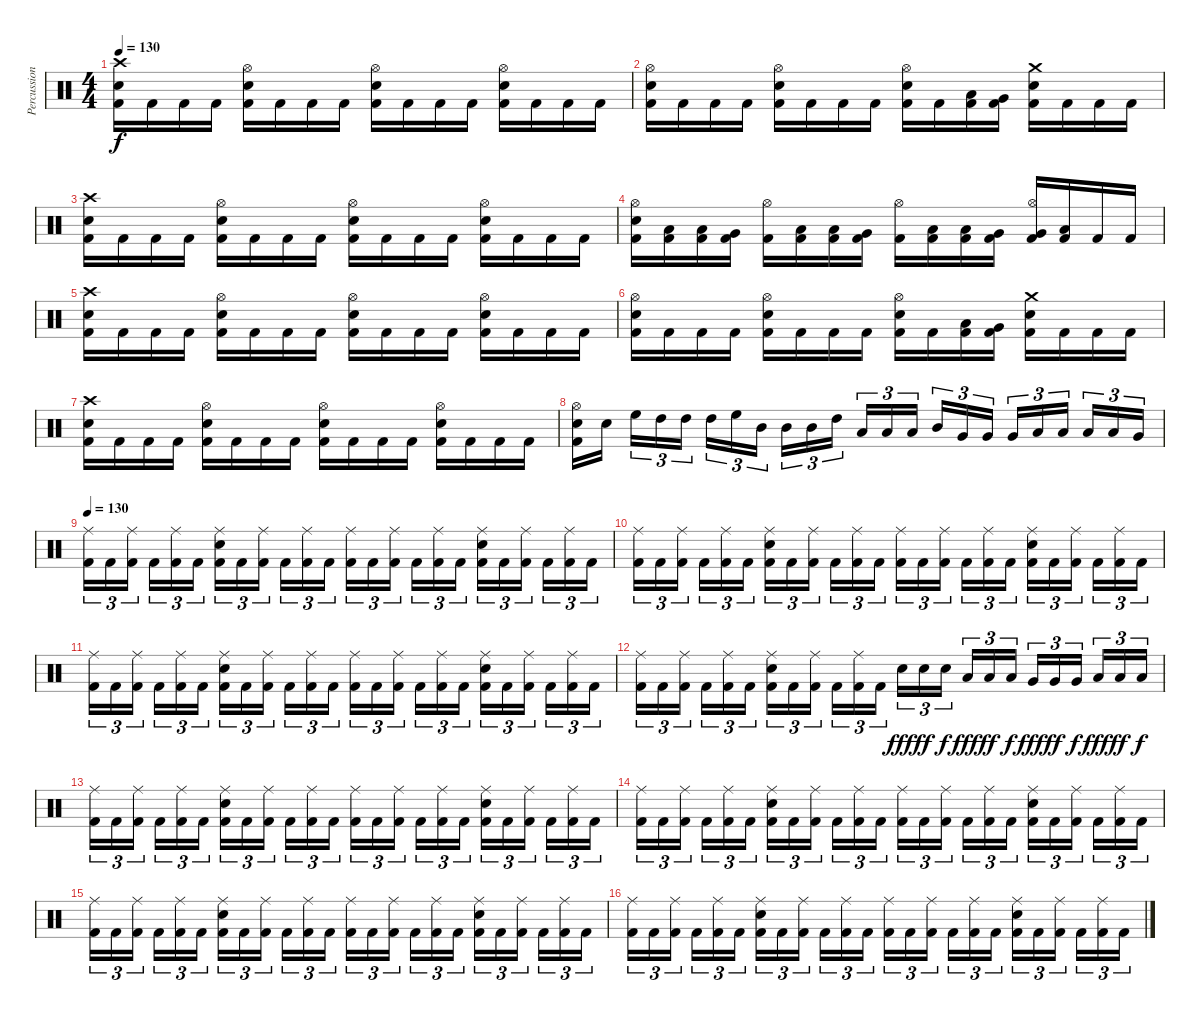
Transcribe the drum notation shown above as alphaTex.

\track ("Percussion" "Percussion") {instrument percussion}
\staff {score}
\articulation defaults
\ts (4 4)
\tempo 130
\clef neutral
\ks c
("Crash high (hit)" "Electric Snare (hit)" "Kick (hit) 2").16{dy f} "Kick (hit) 2".16 "Kick (hit) 2".16 "Kick (hit) 2".16 ("Hi-Hat (open)" "Electric Snare (hit)" "Kick (hit) 2").16 "Kick (hit) 2".16 "Kick (hit) 2".16 "Kick (hit) 2".16 ("Hi-Hat (open)" "Electric Snare (hit)" "Kick (hit) 2").16 "Kick (hit) 2".16 "Kick (hit) 2".16 "Kick (hit) 2".16 ("Hi-Hat (open)" "Electric Snare (hit)" "Kick (hit) 2").16 "Kick (hit) 2".16 "Kick (hit) 2".16 "Kick (hit) 2".16 |
("Hi-Hat (open)" "Electric Snare (hit)" "Kick (hit) 2").16 "Kick (hit) 2".16 "Kick (hit) 2".16 "Kick (hit) 2".16 ("Hi-Hat (open)" "Electric Snare (hit)" "Kick (hit) 2").16 "Kick (hit) 2".16 "Kick (hit) 2".16 "Kick (hit) 2".16 ("Hi-Hat (open)" "Electric Snare (hit)" "Kick (hit) 2").16 "Kick (hit) 2".16 ("Low Tom (hit)" "Kick (hit) 2").16 ("Very Low Tom (hit)" "Kick (hit) 2").16 ("Crash medium (hit)" "Electric Snare (hit)" "Kick (hit) 2").16 "Kick (hit) 2".16 "Kick (hit) 2".16 "Kick (hit) 2".16 |
("Crash high (hit)" "Electric Snare (hit)" "Kick (hit) 2").16 "Kick (hit) 2".16 "Kick (hit) 2".16 "Kick (hit) 2".16 ("Hi-Hat (open)" "Electric Snare (hit)" "Kick (hit) 2").16 "Kick (hit) 2".16 "Kick (hit) 2".16 "Kick (hit) 2".16 ("Hi-Hat (open)" "Electric Snare (hit)" "Kick (hit) 2").16 "Kick (hit) 2".16 "Kick (hit) 2".16 "Kick (hit) 2".16 ("Hi-Hat (open)" "Electric Snare (hit)" "Kick (hit) 2").16 "Kick (hit) 2".16 "Kick (hit) 2".16 "Kick (hit) 2".16 |
("Hi-Hat (open)" "Electric Snare (hit)" "Kick (hit) 2").16 ("Low Tom (hit)" "Kick (hit) 2").16 ("Low Tom (hit)" "Kick (hit) 2").16 ("Very Low Tom (hit)" "Kick (hit) 2").16 ("Hi-Hat (open)" "Kick (hit) 2").16 ("Low Tom (hit)" "Kick (hit) 2").16 ("Low Tom (hit)" "Kick (hit) 2").16 ("Very Low Tom (hit)" "Kick (hit) 2").16 ("Hi-Hat (open)" "Kick (hit) 2").16 ("Low Tom (hit)" "Kick (hit) 2").16 ("Low Tom (hit)" "Kick (hit) 2").16 ("Very Low Tom (hit)" "Kick (hit) 2").16 ("Hi-Hat (open)" "Very Low Tom (hit)" "Kick (hit) 2").16 ("Low Floor Tom (hit)" "Kick (hit) 2").16 "Kick (hit) 2".16 "Kick (hit) 2".16 |
("Crash high (hit)" "Electric Snare (hit)" "Kick (hit) 2").16 "Kick (hit) 2".16 "Kick (hit) 2".16 "Kick (hit) 2".16 ("Hi-Hat (open)" "Electric Snare (hit)" "Kick (hit) 2").16 "Kick (hit) 2".16 "Kick (hit) 2".16 "Kick (hit) 2".16 ("Hi-Hat (open)" "Electric Snare (hit)" "Kick (hit) 2").16 "Kick (hit) 2".16 "Kick (hit) 2".16 "Kick (hit) 2".16 ("Hi-Hat (open)" "Electric Snare (hit)" "Kick (hit) 2").16 "Kick (hit) 2".16 "Kick (hit) 2".16 "Kick (hit) 2".16 |
("Hi-Hat (open)" "Electric Snare (hit)" "Kick (hit) 2").16 "Kick (hit) 2".16 "Kick (hit) 2".16 "Kick (hit) 2".16 ("Hi-Hat (open)" "Electric Snare (hit)" "Kick (hit) 2").16 "Kick (hit) 2".16 "Kick (hit) 2".16 "Kick (hit) 2".16 ("Hi-Hat (open)" "Electric Snare (hit)" "Kick (hit) 2").16 "Kick (hit) 2".16 ("Low Tom (hit)" "Kick (hit) 2").16 ("Very Low Tom (hit)" "Kick (hit) 2").16 ("Crash medium (hit)" "Electric Snare (hit)" "Kick (hit) 2").16 "Kick (hit) 2".16 "Kick (hit) 2".16 "Kick (hit) 2".16 |
("Crash high (hit)" "Electric Snare (hit)" "Kick (hit) 2").16 "Kick (hit) 2".16 "Kick (hit) 2".16 "Kick (hit) 2".16 ("Hi-Hat (open)" "Electric Snare (hit)" "Kick (hit) 2").16 "Kick (hit) 2".16 "Kick (hit) 2".16 "Kick (hit) 2".16 ("Hi-Hat (open)" "Electric Snare (hit)" "Kick (hit) 2").16 "Kick (hit) 2".16 "Kick (hit) 2".16 "Kick (hit) 2".16 ("Hi-Hat (open)" "Electric Snare (hit)" "Kick (hit) 2").16 "Kick (hit) 2".16 "Kick (hit) 2".16 "Kick (hit) 2".16 |
("Hi-Hat (open)" "Electric Snare (hit)" "Kick (hit) 2").16 "Electric Snare (hit)".16{beam splitsecondary} "High Floor Tom (hit)".16{tu (3 2)} "High Tom (hit)".16{tu (3 2)} "High Tom (hit)".16{tu (3 2)} "High Tom (hit)".16{tu (3 2)} "High Floor Tom (hit)".16{tu (3 2)} "Mid Tom (hit)".16{tu (3 2) beam splitsecondary} "Mid Tom (hit)".16{tu (3 2)} "Mid Tom (hit)".16{tu (3 2)} "High Tom (hit)".16{tu (3 2)} "Low Tom (hit)".16{tu (3 2)} "Low Tom (hit)".16{tu (3 2)} "Low Tom (hit)".16{tu (3 2) beam splitsecondary} "Mid Tom (hit)".16{tu (3 2)} "Very Low Tom (hit)".16{tu (3 2)} "Very Low Tom (hit)".16{tu (3 2)} "Very Low Tom (hit)".16{tu (3 2)} "Low Tom (hit)".16{tu (3 2)} "Low Floor Tom (hit)".16{tu (3 2) beam splitsecondary} "Low Floor Tom (hit)".16{tu (3 2)} "Low Floor Tom (hit)".16{tu (3 2)} "Very Low Tom (hit)".16{tu (3 2)} |
\tempo 130
("Ride (middle)" "Kick (hit) 2").16{tu (3 2)} "Kick (hit) 2".16{tu (3 2)} ("Ride (middle)" "Kick (hit) 2").16{tu (3 2) beam splitsecondary} "Kick (hit) 2".16{tu (3 2)} ("Ride (middle)" "Kick (hit) 2").16{tu (3 2)} "Kick (hit) 2".16{tu (3 2)} ("Ride (middle)" "Electric Snare (hit)" "Kick (hit) 2").16{tu (3 2)} "Kick (hit) 2".16{tu (3 2)} ("Ride (middle)" "Kick (hit) 2").16{tu (3 2) beam splitsecondary} "Kick (hit) 2".16{tu (3 2)} ("Ride (middle)" "Kick (hit) 2").16{tu (3 2)} "Kick (hit) 2".16{tu (3 2)} ("Ride (middle)" "Kick (hit) 2").16{tu (3 2)} "Kick (hit) 2".16{tu (3 2)} ("Ride (middle)" "Kick (hit) 2").16{tu (3 2) beam splitsecondary} "Kick (hit) 2".16{tu (3 2)} ("Ride (middle)" "Kick (hit) 2").16{tu (3 2)} "Kick (hit) 2".16{tu (3 2)} ("Ride (middle)" "Electric Snare (hit)" "Kick (hit) 2").16{tu (3 2)} "Kick (hit) 2".16{tu (3 2)} ("Ride (middle)" "Kick (hit) 2").16{tu (3 2) beam splitsecondary} "Kick (hit) 2".16{tu (3 2)} ("Ride (middle)" "Kick (hit) 2").16{tu (3 2)} "Kick (hit) 2".16{tu (3 2)} |
("Ride (middle)" "Kick (hit) 2").16{tu (3 2)} "Kick (hit) 2".16{tu (3 2)} ("Ride (middle)" "Kick (hit) 2").16{tu (3 2) beam splitsecondary} "Kick (hit) 2".16{tu (3 2)} ("Ride (middle)" "Kick (hit) 2").16{tu (3 2)} "Kick (hit) 2".16{tu (3 2)} ("Ride (middle)" "Electric Snare (hit)" "Kick (hit) 2").16{tu (3 2)} "Kick (hit) 2".16{tu (3 2)} ("Ride (middle)" "Kick (hit) 2").16{tu (3 2) beam splitsecondary} "Kick (hit) 2".16{tu (3 2)} ("Ride (middle)" "Kick (hit) 2").16{tu (3 2)} "Kick (hit) 2".16{tu (3 2)} ("Ride (middle)" "Kick (hit) 2").16{tu (3 2)} "Kick (hit) 2".16{tu (3 2)} ("Ride (middle)" "Kick (hit) 2").16{tu (3 2) beam splitsecondary} "Kick (hit) 2".16{tu (3 2)} ("Ride (middle)" "Kick (hit) 2").16{tu (3 2)} "Kick (hit) 2".16{tu (3 2)} ("Ride (middle)" "Electric Snare (hit)" "Kick (hit) 2").16{tu (3 2)} "Kick (hit) 2".16{tu (3 2)} ("Ride (middle)" "Kick (hit) 2").16{tu (3 2) beam splitsecondary} "Kick (hit) 2".16{tu (3 2)} ("Ride (middle)" "Kick (hit) 2").16{tu (3 2)} "Kick (hit) 2".16{tu (3 2)} |
("Ride (middle)" "Kick (hit) 2").16{tu (3 2)} "Kick (hit) 2".16{tu (3 2)} ("Ride (middle)" "Kick (hit) 2").16{tu (3 2) beam splitsecondary} "Kick (hit) 2".16{tu (3 2)} ("Ride (middle)" "Kick (hit) 2").16{tu (3 2)} "Kick (hit) 2".16{tu (3 2)} ("Ride (middle)" "Electric Snare (hit)" "Kick (hit) 2").16{tu (3 2)} "Kick (hit) 2".16{tu (3 2)} ("Ride (middle)" "Kick (hit) 2").16{tu (3 2) beam splitsecondary} "Kick (hit) 2".16{tu (3 2)} ("Ride (middle)" "Kick (hit) 2").16{tu (3 2)} "Kick (hit) 2".16{tu (3 2)} ("Ride (middle)" "Kick (hit) 2").16{tu (3 2)} "Kick (hit) 2".16{tu (3 2)} ("Ride (middle)" "Kick (hit) 2").16{tu (3 2) beam splitsecondary} "Kick (hit) 2".16{tu (3 2)} ("Ride (middle)" "Kick (hit) 2").16{tu (3 2)} "Kick (hit) 2".16{tu (3 2)} ("Ride (middle)" "Electric Snare (hit)" "Kick (hit) 2").16{tu (3 2)} "Kick (hit) 2".16{tu (3 2)} ("Ride (middle)" "Kick (hit) 2").16{tu (3 2) beam splitsecondary} "Kick (hit) 2".16{tu (3 2)} ("Ride (middle)" "Kick (hit) 2").16{tu (3 2)} "Kick (hit) 2".16{tu (3 2)} |
("Ride (middle)" "Kick (hit) 2").16{tu (3 2)} "Kick (hit) 2".16{tu (3 2)} ("Ride (middle)" "Kick (hit) 2").16{tu (3 2) beam splitsecondary} "Kick (hit) 2".16{tu (3 2)} ("Ride (middle)" "Kick (hit) 2").16{tu (3 2)} "Kick (hit) 2".16{tu (3 2)} ("Ride (middle)" "Electric Snare (hit)" "Kick (hit) 2").16{tu (3 2)} "Kick (hit) 2".16{tu (3 2)} ("Ride (middle)" "Kick (hit) 2").16{tu (3 2) beam splitsecondary} "Kick (hit) 2".16{tu (3 2)} ("Ride (middle)" "Kick (hit) 2").16{tu (3 2)} "Kick (hit) 2".16{tu (3 2)} "Electric Snare (hit)".16{tu (3 2) dy fff} "Electric Snare (hit)".16{tu (3 2) dy ff} "Electric Snare (hit)".16{tu (3 2) dy f beam splitsecondary} "Low Tom (hit)".16{tu (3 2) dy fff} "Low Tom (hit)".16{tu (3 2) dy ff} "Low Tom (hit)".16{tu (3 2) dy f} "Very Low Tom (hit)".16{tu (3 2) dy fff} "Very Low Tom (hit)".16{tu (3 2) dy ff} "Very Low Tom (hit)".16{tu (3 2) dy f beam splitsecondary} "Low Floor Tom (hit)".16{tu (3 2) dy fff} "Low Floor Tom (hit)".16{tu (3 2) dy ff} "Low Floor Tom (hit)".16{tu (3 2) dy f} |
("Ride (middle)" "Kick (hit) 2").16{tu (3 2)} "Kick (hit) 2".16{tu (3 2)} ("Ride (middle)" "Kick (hit) 2").16{tu (3 2) beam splitsecondary} "Kick (hit) 2".16{tu (3 2)} ("Ride (middle)" "Kick (hit) 2").16{tu (3 2)} "Kick (hit) 2".16{tu (3 2)} ("Ride (middle)" "Electric Snare (hit)" "Kick (hit) 2").16{tu (3 2)} "Kick (hit) 2".16{tu (3 2)} ("Ride (middle)" "Kick (hit) 2").16{tu (3 2) beam splitsecondary} "Kick (hit) 2".16{tu (3 2)} ("Ride (middle)" "Kick (hit) 2").16{tu (3 2)} "Kick (hit) 2".16{tu (3 2)} ("Ride (middle)" "Kick (hit) 2").16{tu (3 2)} "Kick (hit) 2".16{tu (3 2)} ("Ride (middle)" "Kick (hit) 2").16{tu (3 2) beam splitsecondary} "Kick (hit) 2".16{tu (3 2)} ("Ride (middle)" "Kick (hit) 2").16{tu (3 2)} "Kick (hit) 2".16{tu (3 2)} ("Ride (middle)" "Electric Snare (hit)" "Kick (hit) 2").16{tu (3 2)} "Kick (hit) 2".16{tu (3 2)} ("Ride (middle)" "Kick (hit) 2").16{tu (3 2) beam splitsecondary} "Kick (hit) 2".16{tu (3 2)} ("Ride (middle)" "Kick (hit) 2").16{tu (3 2)} "Kick (hit) 2".16{tu (3 2)} |
("Ride (middle)" "Kick (hit) 2").16{tu (3 2)} "Kick (hit) 2".16{tu (3 2)} ("Ride (middle)" "Kick (hit) 2").16{tu (3 2) beam splitsecondary} "Kick (hit) 2".16{tu (3 2)} ("Ride (middle)" "Kick (hit) 2").16{tu (3 2)} "Kick (hit) 2".16{tu (3 2)} ("Ride (middle)" "Electric Snare (hit)" "Kick (hit) 2").16{tu (3 2)} "Kick (hit) 2".16{tu (3 2)} ("Ride (middle)" "Kick (hit) 2").16{tu (3 2) beam splitsecondary} "Kick (hit) 2".16{tu (3 2)} ("Ride (middle)" "Kick (hit) 2").16{tu (3 2)} "Kick (hit) 2".16{tu (3 2)} ("Ride (middle)" "Kick (hit) 2").16{tu (3 2)} "Kick (hit) 2".16{tu (3 2)} ("Ride (middle)" "Kick (hit) 2").16{tu (3 2) beam splitsecondary} "Kick (hit) 2".16{tu (3 2)} ("Ride (middle)" "Kick (hit) 2").16{tu (3 2)} "Kick (hit) 2".16{tu (3 2)} ("Ride (middle)" "Electric Snare (hit)" "Kick (hit) 2").16{tu (3 2)} "Kick (hit) 2".16{tu (3 2)} ("Ride (middle)" "Kick (hit) 2").16{tu (3 2) beam splitsecondary} "Kick (hit) 2".16{tu (3 2)} ("Ride (middle)" "Kick (hit) 2").16{tu (3 2)} "Kick (hit) 2".16{tu (3 2)} |
("Ride (middle)" "Kick (hit) 2").16{tu (3 2)} "Kick (hit) 2".16{tu (3 2)} ("Ride (middle)" "Kick (hit) 2").16{tu (3 2) beam splitsecondary} "Kick (hit) 2".16{tu (3 2)} ("Ride (middle)" "Kick (hit) 2").16{tu (3 2)} "Kick (hit) 2".16{tu (3 2)} ("Ride (middle)" "Electric Snare (hit)" "Kick (hit) 2").16{tu (3 2)} "Kick (hit) 2".16{tu (3 2)} ("Ride (middle)" "Kick (hit) 2").16{tu (3 2) beam splitsecondary} "Kick (hit) 2".16{tu (3 2)} ("Ride (middle)" "Kick (hit) 2").16{tu (3 2)} "Kick (hit) 2".16{tu (3 2)} ("Ride (middle)" "Kick (hit) 2").16{tu (3 2)} "Kick (hit) 2".16{tu (3 2)} ("Ride (middle)" "Kick (hit) 2").16{tu (3 2) beam splitsecondary} "Kick (hit) 2".16{tu (3 2)} ("Ride (middle)" "Kick (hit) 2").16{tu (3 2)} "Kick (hit) 2".16{tu (3 2)} ("Ride (middle)" "Electric Snare (hit)" "Kick (hit) 2").16{tu (3 2)} "Kick (hit) 2".16{tu (3 2)} ("Ride (middle)" "Kick (hit) 2").16{tu (3 2) beam splitsecondary} "Kick (hit) 2".16{tu (3 2)} ("Ride (middle)" "Kick (hit) 2").16{tu (3 2)} "Kick (hit) 2".16{tu (3 2)} |
("Ride (middle)" "Kick (hit) 2").16{tu (3 2)} "Kick (hit) 2".16{tu (3 2)} ("Ride (middle)" "Kick (hit) 2").16{tu (3 2) beam splitsecondary} "Kick (hit) 2".16{tu (3 2)} ("Ride (middle)" "Kick (hit) 2").16{tu (3 2)} "Kick (hit) 2".16{tu (3 2)} ("Ride (middle)" "Electric Snare (hit)" "Kick (hit) 2").16{tu (3 2)} "Kick (hit) 2".16{tu (3 2)} ("Ride (middle)" "Kick (hit) 2").16{tu (3 2) beam splitsecondary} "Kick (hit) 2".16{tu (3 2)} ("Ride (middle)" "Kick (hit) 2").16{tu (3 2)} "Kick (hit) 2".16{tu (3 2)} ("Ride (middle)" "Kick (hit) 2").16{tu (3 2)} "Kick (hit) 2".16{tu (3 2)} ("Ride (middle)" "Kick (hit) 2").16{tu (3 2) beam splitsecondary} "Kick (hit) 2".16{tu (3 2)} ("Ride (middle)" "Kick (hit) 2").16{tu (3 2)} "Kick (hit) 2".16{tu (3 2)} ("Ride (middle)" "Electric Snare (hit)" "Kick (hit) 2").16{tu (3 2)} "Kick (hit) 2".16{tu (3 2)} ("Ride (middle)" "Kick (hit) 2").16{tu (3 2) beam splitsecondary} "Kick (hit) 2".16{tu (3 2)} ("Ride (middle)" "Kick (hit) 2").16{tu (3 2)} "Kick (hit) 2".16{tu (3 2)}
